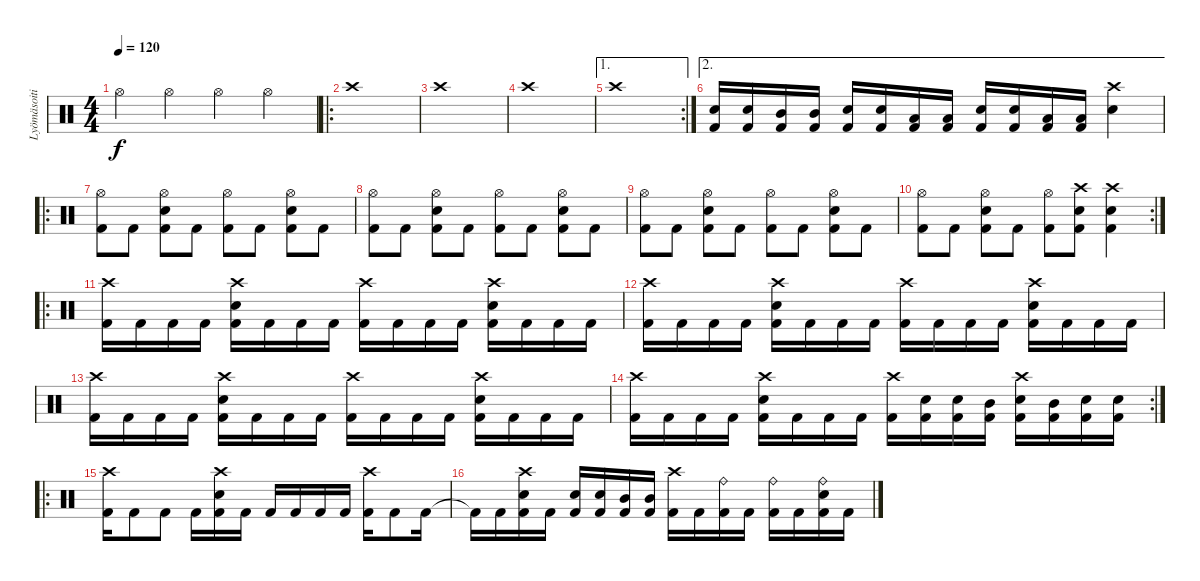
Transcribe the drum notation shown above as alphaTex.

\track ("Lyömäsoitin" "Lyömäsoiti") {instrument percussion}
\staff {score}
\articulation defaults
\ts (4 4)
\tempo 120
\clef neutral
\ks c "Hi-Hat (open)".4{dy f} "Hi-Hat (open)".4 "Hi-Hat (open)".4 "Hi-Hat (open)".4
|
\ro "Crash high (hit)".1
|
"Crash high (hit)".1 |
"Crash high (hit)".1 |
\ae 1
\rc 2 "Crash high (hit)".1
|
\ae 2
("Electric Snare (hit)" "Kick (hit) 2").16 ("Electric Snare (hit)" "Kick (hit) 2").16 ("Mid Tom (hit)" "Kick (hit) 2").16 ("Mid Tom (hit)" "Kick (hit) 2").16 ("Electric Snare (hit)" "Kick (hit) 2").16 ("Electric Snare (hit)" "Kick (hit) 2").16 ("Low Tom (hit)" "Kick (hit) 2").16 ("Low Tom (hit)" "Kick (hit) 2").16 ("Electric Snare (hit)" "Kick (hit) 2").16 ("Electric Snare (hit)" "Kick (hit) 2").16 ("Low Tom (hit)" "Kick (hit) 2").16 ("Low Tom (hit)" "Kick (hit) 2").16 ("Crash high (hit)" "Electric Snare (hit)").4 |
\ro
("Kick (hit) 2" "Hi-Hat (open)").8 "Kick (hit) 2".8 ("Kick (hit) 2" "Hi-Hat (open)" "Electric Snare (hit)").8 "Kick (hit) 2".8 ("Kick (hit) 2" "Hi-Hat (open)").8 "Kick (hit) 2".8 ("Kick (hit) 2" "Hi-Hat (open)" "Electric Snare (hit)").8 "Kick (hit) 2".8 |
("Kick (hit) 2" "Hi-Hat (open)").8 "Kick (hit) 2".8 ("Kick (hit) 2" "Hi-Hat (open)" "Electric Snare (hit)").8 "Kick (hit) 2".8 ("Kick (hit) 2" "Hi-Hat (open)").8 "Kick (hit) 2".8 ("Kick (hit) 2" "Hi-Hat (open)" "Electric Snare (hit)").8 "Kick (hit) 2".8 |
("Kick (hit) 2" "Hi-Hat (open)").8 "Kick (hit) 2".8 ("Kick (hit) 2" "Hi-Hat (open)" "Electric Snare (hit)").8 "Kick (hit) 2".8 ("Kick (hit) 2" "Hi-Hat (open)").8 "Kick (hit) 2".8 ("Kick (hit) 2" "Hi-Hat (open)" "Electric Snare (hit)").8 "Kick (hit) 2".8 |
\rc 2
("Kick (hit) 2" "Hi-Hat (open)").8 "Kick (hit) 2".8 ("Kick (hit) 2" "Hi-Hat (open)" "Electric Snare (hit)").8 "Kick (hit) 2".8 ("Kick (hit) 2" "Hi-Hat (open)").8 ("Kick (hit) 2" "Crash high (hit)" "Electric Snare (hit)").8 ("Kick (hit) 2" "Crash high (hit)" "Electric Snare (hit)").4 |
\ro
("Kick (hit) 2" "Crash high (hit)").16 "Kick (hit) 2".16 "Kick (hit) 2".16 "Kick (hit) 2".16 ("Kick (hit) 2" "Crash high (hit)" "Electric Snare (hit)").16 "Kick (hit) 2".16 "Kick (hit) 2".16 "Kick (hit) 2".16 ("Kick (hit) 2" "Crash high (hit)").16 "Kick (hit) 2".16 "Kick (hit) 2".16 "Kick (hit) 2".16 ("Kick (hit) 2" "Crash high (hit)" "Electric Snare (hit)").16 "Kick (hit) 2".16 "Kick (hit) 2".16 "Kick (hit) 2".16 |
("Kick (hit) 2" "Crash high (hit)").16 "Kick (hit) 2".16 "Kick (hit) 2".16 "Kick (hit) 2".16 ("Kick (hit) 2" "Crash high (hit)" "Electric Snare (hit)").16 "Kick (hit) 2".16 "Kick (hit) 2".16 "Kick (hit) 2".16 ("Kick (hit) 2" "Crash high (hit)").16 "Kick (hit) 2".16 "Kick (hit) 2".16 "Kick (hit) 2".16 ("Kick (hit) 2" "Crash high (hit)" "Electric Snare (hit)").16 "Kick (hit) 2".16 "Kick (hit) 2".16 "Kick (hit) 2".16 |
("Kick (hit) 2" "Crash high (hit)").16 "Kick (hit) 2".16 "Kick (hit) 2".16 "Kick (hit) 2".16 ("Kick (hit) 2" "Crash high (hit)" "Electric Snare (hit)").16 "Kick (hit) 2".16 "Kick (hit) 2".16 "Kick (hit) 2".16 ("Kick (hit) 2" "Crash high (hit)").16 "Kick (hit) 2".16 "Kick (hit) 2".16 "Kick (hit) 2".16 ("Kick (hit) 2" "Crash high (hit)" "Electric Snare (hit)").16 "Kick (hit) 2".16 "Kick (hit) 2".16 "Kick (hit) 2".16 |
\rc 2
("Kick (hit) 2" "Crash high (hit)").16 "Kick (hit) 2".16 "Kick (hit) 2".16 "Kick (hit) 2".16 ("Kick (hit) 2" "Crash high (hit)" "Electric Snare (hit)").16 "Kick (hit) 2".16 "Kick (hit) 2".16 "Kick (hit) 2".16 ("Kick (hit) 2" "Crash high (hit)").16 ("Kick (hit) 2" "Electric Snare (hit)").16 ("Kick (hit) 2" "Electric Snare (hit)").16 ("Kick (hit) 2" "Mid Tom (hit)").16 ("Kick (hit) 2" "Crash high (hit)" "Electric Snare (hit)").16 ("Kick (hit) 2" "Mid Tom (hit)").16 ("Kick (hit) 2" "Electric Snare (hit)").16 ("Kick (hit) 2" "Electric Snare (hit)").16 |
\ro
("Kick (hit) 2" "Crash high (hit)").16 "Kick (hit) 2".8 "Kick (hit) 2".8 "Kick (hit) 2".16 ("Kick (hit) 2" "Crash high (hit)" "Electric Snare (hit)").16 "Kick (hit) 2".16 "Kick (hit) 2".16 "Kick (hit) 2".16 "Kick (hit) 2".16 "Kick (hit) 2".16 ("Kick (hit) 2" "Crash high (hit)").16 "Kick (hit) 2".8 "Kick (hit) 2".16 |
"Kick (hit) 2"{t}.16 "Kick (hit) 2".16 ("Kick (hit) 2" "Crash high (hit)" "Electric Snare (hit)").16 "Kick (hit) 2".16 ("Kick (hit) 2" "Electric Snare (hit)").16 ("Kick (hit) 2" "Electric Snare (hit)").16 ("Kick (hit) 2" "Mid Tom (hit)").16 ("Kick (hit) 2" "Mid Tom (hit)").16 ("Kick (hit) 2" "Crash high (hit)").16 "Kick (hit) 2".16 ("Kick (hit) 2" "Ride (bell)").16 "Kick (hit) 2".16 ("Kick (hit) 2" "Ride (bell)").16 "Kick (hit) 2".16 ("Kick (hit) 2" "Ride (bell)" "Electric Snare (hit)").16 "Kick (hit) 2".16
